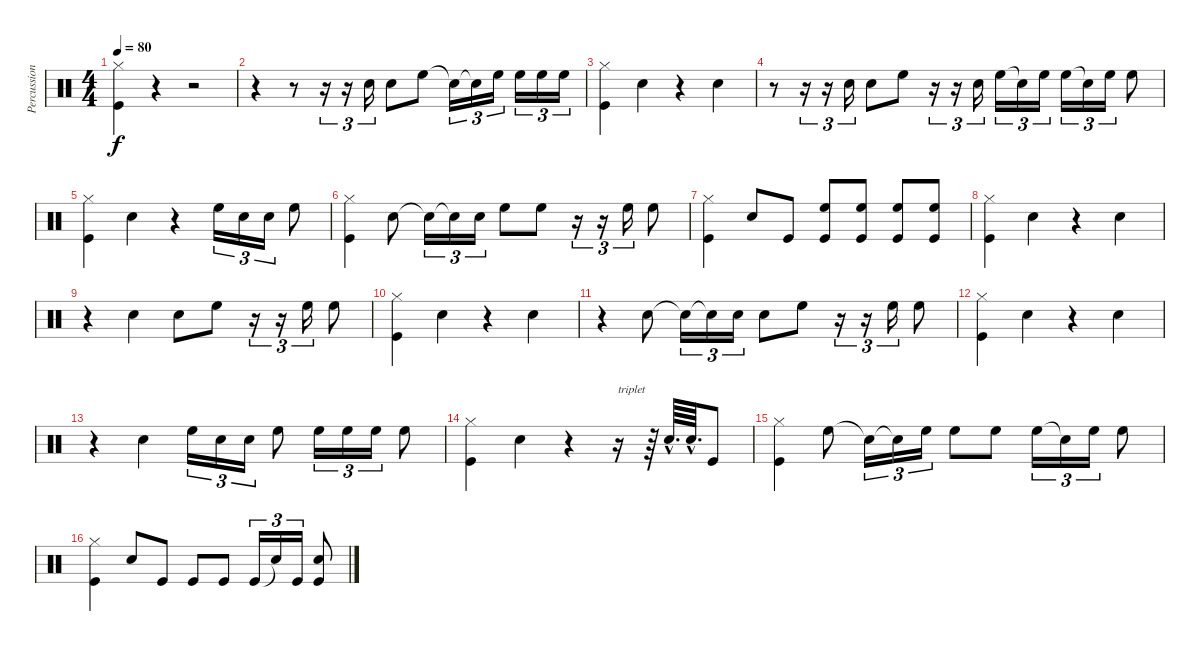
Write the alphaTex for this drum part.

\track ("Percussion" "Percussion") {instrument percussion}
\staff {score}
\articulation defaults
\ts (4 4)
\tempo 80
\clef neutral
\ks c
("Hi-Hat (closed)" "Kick (hit)").4{dy f} r.4 r.2 |
r.4 r.8 r.16{tu (3 2)} r.16{tu (3 2)} "Snare (hit) 2".16{tu (3 2)} "Snare (hit) 2".8 "High Floor Tom (hit)".8 "Snare (hit)"{t}.16{tu (3 2)} "Snare (hit)"{t}.16{tu (3 2)} "High Floor Tom (hit)".16{tu (3 2)} "High Floor Tom (hit)".16{tu (3 2)} "High Floor Tom (hit)".16{tu (3 2)} "High Floor Tom (hit)".16{tu (3 2)} |
("Hi-Hat (closed)" "Kick (hit)").4 "Snare (hit) 2".4 r.4 "Snare (hit) 2".4 |
r.8 r.16{tu (3 2)} r.16{tu (3 2)} "Snare (hit) 2".16{tu (3 2)} "Snare (hit) 2".8 "High Floor Tom (hit)".8 r.16{tu (3 2)} r.16{tu (3 2)} "Snare (hit) 2".16{tu (3 2)} "High Floor Tom (hit)".16{tu (3 2)} "Snare (hit)"{t}.16{tu (3 2)} "High Floor Tom (hit)".16{tu (3 2)} "High Floor Tom (hit)".16{tu (3 2)} "Snare (hit)"{t}.16{tu (3 2)} "High Floor Tom (hit)".16{tu (3 2)} "High Floor Tom (hit)".8 |
("Hi-Hat (closed)" "Kick (hit)").4 "Snare (hit) 2".4 r.4 "High Floor Tom (hit)".16{tu (3 2)} "Snare (hit) 2".16{tu (3 2)} "Snare (hit) 2".16{tu (3 2)} "High Floor Tom (hit)".8 |
("Hi-Hat (closed)" "Kick (hit)").4 "Snare (hit) 2".8 "Snare (hit)"{t}.16{tu (3 2)} "Snare (hit)"{t}.16{tu (3 2)} "Snare (hit) 2".16{tu (3 2)} "High Floor Tom (hit)".8 "High Floor Tom (hit)".8 r.16{tu (3 2)} r.16{tu (3 2)} "High Floor Tom (hit)".16{tu (3 2)} "High Floor Tom (hit)".8 |
("Hi-Hat (closed)" "Kick (hit)").4 "Snare (hit) 2".8 "Kick (hit)".8 ("High Floor Tom (hit)" "Kick (hit)").8 ("High Floor Tom (hit)" "Kick (hit)").8 ("High Floor Tom (hit)" "Kick (hit)").8 ("High Floor Tom (hit)" "Kick (hit)").8 |
("Hi-Hat (closed)" "Kick (hit)").4 "Snare (hit) 2".4 r.4 "Snare (hit) 2".4 |
r.4 "Snare (hit) 2".4 "Snare (hit) 2".8 "High Floor Tom (hit)".8 r.16{tu (3 2)} r.16{tu (3 2)} "High Floor Tom (hit)".16{tu (3 2)} "High Floor Tom (hit)".8 |
("Hi-Hat (closed)" "Kick (hit)").4 "Snare (hit) 2".4 r.4 "Snare (hit) 2".4 |
r.4 "Snare (hit) 2".8 "Snare (hit)"{t}.16{tu (3 2)} "Snare (hit)"{t}.16{tu (3 2)} "Snare (hit) 2".16{tu (3 2)} "Snare (hit) 2".8 "High Floor Tom (hit)".8 r.16{tu (3 2)} r.16{tu (3 2)} "High Floor Tom (hit)".16{tu (3 2)} "High Floor Tom (hit)".8 |
("Hi-Hat (closed)" "Kick (hit)").4 "Snare (hit) 2".4 r.4 "Snare (hit) 2".4 |
r.4 "Snare (hit) 2".4 "High Floor Tom (hit)".16{tu (3 2)} "Snare (hit) 2".16{tu (3 2)} "Snare (hit) 2".16{tu (3 2)} "High Floor Tom (hit)".8 "High Floor Tom (hit)".16{tu (3 2)} "High Floor Tom (hit)".16{tu (3 2)} "High Floor Tom (hit)".16{tu (3 2)} "High Floor Tom (hit)".8 |
("Hi-Hat (closed)" "Kick (hit)").4 "Snare (hit) 2".4 r.4 r.16{txt "triplet"} r.64 "Snare (hit) 2"{hac}.64{d} "Snare (hit) 2"{hac}.64{d} "Kick (hit)".8 |
("Hi-Hat (closed)" "Kick (hit)").4 "High Floor Tom (hit)".8 "Snare (hit)"{t}.16{tu (3 2)} "Snare (hit)"{t}.16{tu (3 2)} "High Floor Tom (hit)".16{tu (3 2)} "High Floor Tom (hit)".8 "High Floor Tom (hit)".8 "High Floor Tom (hit)".16{tu (3 2)} "Snare (hit)"{t}.16{tu (3 2)} "High Floor Tom (hit)".16{tu (3 2)} "High Floor Tom (hit)".8 |
("Hi-Hat (closed)" "Kick (hit)").4 "Snare (hit) 2".8 "Kick (hit)".8 "Kick (hit)".8 "Kick (hit)".8 "Kick (hit)".16{tu (3 2)} "Snare (hit)"{t}.16{tu (3 2)} "Kick (hit)".16{tu (3 2)} ("Snare (hit) 2" "Kick (hit)").8
